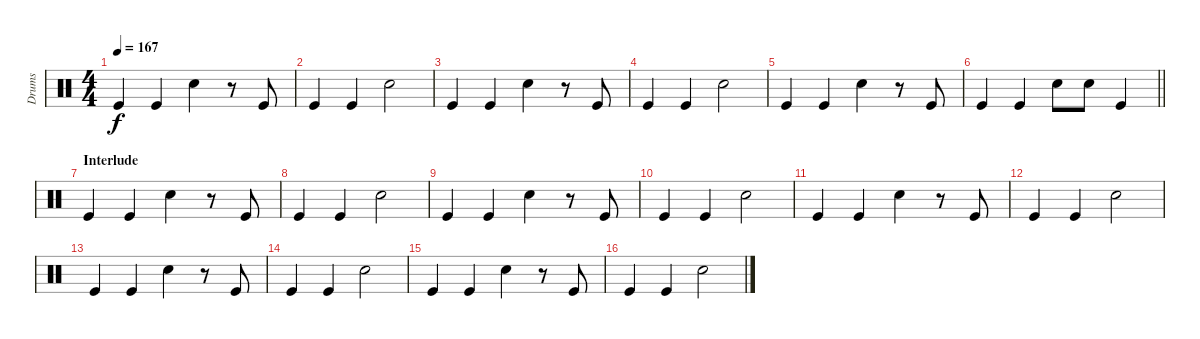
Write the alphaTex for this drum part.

\track ("Drums" "Drums") {instrument percussion}
\staff {score}
\articulation defaults
\ts (4 4)
\tempo 167
\clef neutral
\ks c "Kick (hit)".4{dy f} "Kick (hit)".4 "Electric Snare (hit)".4
r.8 "Kick (hit)".8 |
"Kick (hit)".4 "Kick (hit)".4 "Electric Snare (hit)".2 |
"Kick (hit)".4 "Kick (hit)".4 "Electric Snare (hit)".4 r.8 "Kick (hit)".8 |
"Kick (hit)".4 "Kick (hit)".4 "Electric Snare (hit)".2 |
"Kick (hit)".4 "Kick (hit)".4 "Electric Snare (hit)".4 r.8 "Kick (hit)".8 |
\barLineRight lightlight "Kick (hit)".4 "Kick (hit)".4 "Electric Snare (hit)".8 "Electric Snare (hit)".8 "Kick (hit)".4
|
\section ("" "Interlude")
"Kick (hit)".4 "Kick (hit)".4 "Electric Snare (hit)".4 r.8 "Kick (hit)".8 |
"Kick (hit)".4 "Kick (hit)".4 "Electric Snare (hit)".2 |
"Kick (hit)".4 "Kick (hit)".4 "Electric Snare (hit)".4 r.8 "Kick (hit)".8 |
"Kick (hit)".4 "Kick (hit)".4 "Electric Snare (hit)".2 |
"Kick (hit)".4 "Kick (hit)".4 "Electric Snare (hit)".4 r.8 "Kick (hit)".8 |
"Kick (hit)".4 "Kick (hit)".4 "Electric Snare (hit)".2 |
"Kick (hit)".4 "Kick (hit)".4 "Electric Snare (hit)".4 r.8 "Kick (hit)".8 |
"Kick (hit)".4 "Kick (hit)".4 "Electric Snare (hit)".2 |
"Kick (hit)".4 "Kick (hit)".4 "Electric Snare (hit)".4 r.8 "Kick (hit)".8 |
"Kick (hit)".4 "Kick (hit)".4 "Electric Snare (hit)".2
